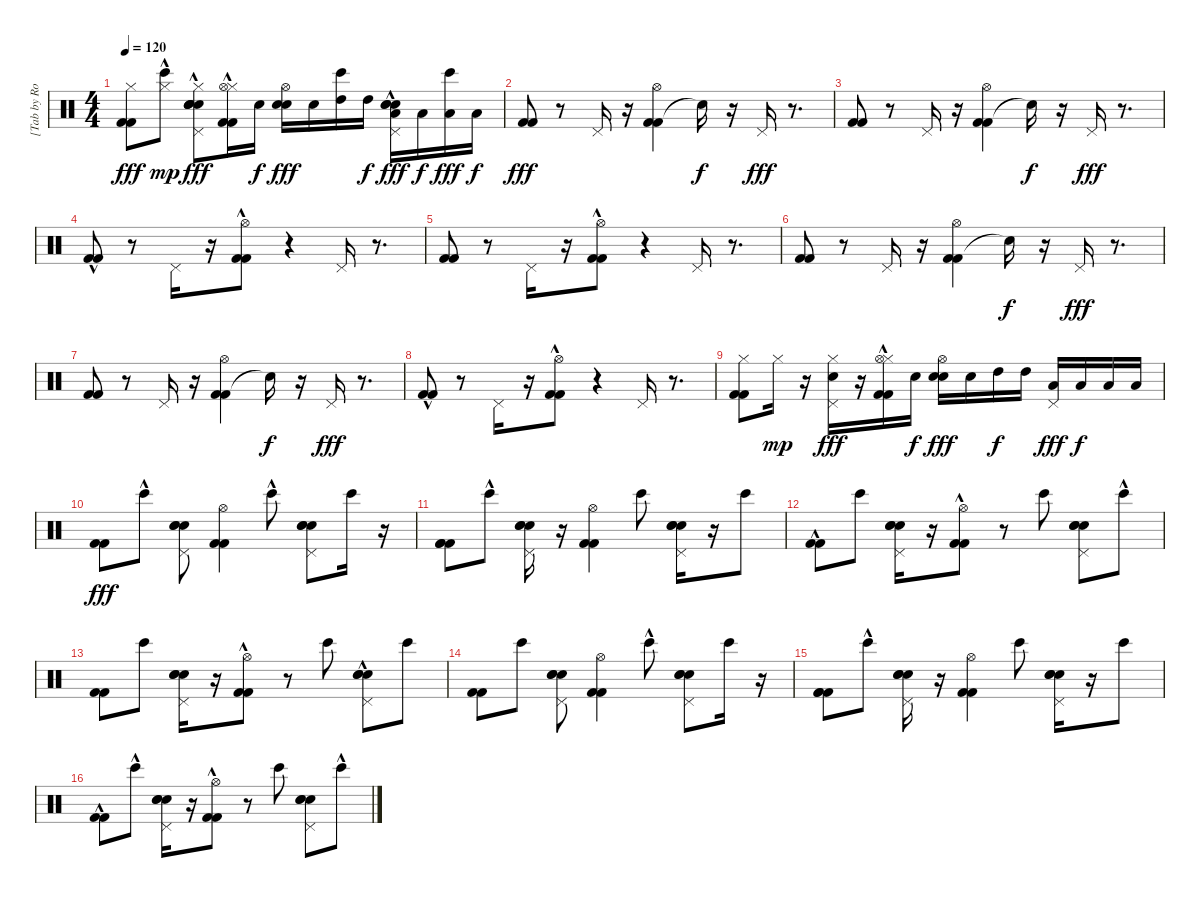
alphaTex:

\track ("[Tab by Rodrigo Takahashi]" "[Tab by Ro") {instrument percussion}
\staff {score}
\articulation defaults
\ts (4 4)
\tempo 120
\clef neutral
\ks c
("Hi-Hat (closed)" "Kick (hit) 2" "Kick (hit) 2").8{dy fff} ("Bongo High (hit)"{hac} "Hi-Hat (closed)").8{dy mp} ("Hi-Hat (closed)" "Snare (hit) 2" "Hand Clap (hit)" "Pedal Hi-Hat (hit)" "Electric Snare (hit)"{hac} "Snare (hit) 2").8{dy fff} ("Hi-Hat (closed)" "Kick (hit) 2"{hac} "Kick (hit) 2"{hac} "Hi-Hat (open)").16 "Snare (hit) 2".16{dy f} ("Snare (hit) 2" "Hi-Hat (open)" "Snare (hit) 2").16{dy fff} "Snare (hit) 2".16 ("High Tom (hit)" "Bongo High (hit)").16 "High Tom (hit)".16{dy f} ("Low Tom (hit)" "Hand Clap (hit)" "Snare (hit) 2" "Pedal Hi-Hat (hit)" "Electric Snare (hit)"{hac}).16{dy fff} "Low Tom (hit)".16{dy f} ("Low Floor Tom (hit)" "Bongo High (hit)").16{dy fff} "Low Floor Tom (hit)".16{dy f} |
("Kick (hit) 2" "Kick (hit) 2").8{dy fff} r.8 "Pedal Hi-Hat (hit)".16 r.16 ("Kick (hit) 2" "Kick (hit) 2" "Hi-Hat (open)").4 "Snare (hit)"{t}.16{dy f} r.16 "Pedal Hi-Hat (hit)".16{dy fff} r.8{d} |
("Kick (hit) 2" "Kick (hit) 2").8 r.8 "Pedal Hi-Hat (hit)".16 r.16 ("Kick (hit) 2" "Kick (hit) 2" "Hi-Hat (open)").4 "Snare (hit)"{t}.16{dy f} r.16 "Pedal Hi-Hat (hit)".16{dy fff} r.8{d} |
("Kick (hit) 2"{hac} "Kick (hit) 2"{hac}).8 r.8 "Pedal Hi-Hat (hit)".16 r.16 ("Kick (hit) 2"{hac} "Kick (hit) 2"{hac} "Hi-Hat (open)").8 r.4 "Pedal Hi-Hat (hit)".16 r.8{d} |
("Kick (hit) 2" "Kick (hit) 2").8 r.8 "Pedal Hi-Hat (hit)".16 r.16 ("Kick (hit) 2"{hac} "Kick (hit) 2"{hac} "Hi-Hat (open)").8 r.4 "Pedal Hi-Hat (hit)".16 r.8{d} |
("Kick (hit) 2" "Kick (hit) 2").8 r.8 "Pedal Hi-Hat (hit)".16 r.16 ("Kick (hit) 2" "Kick (hit) 2" "Hi-Hat (open)").4 "Snare (hit)"{t}.16{dy f} r.16 "Pedal Hi-Hat (hit)".16{dy fff} r.8{d} |
("Kick (hit) 2" "Kick (hit) 2").8 r.8 "Pedal Hi-Hat (hit)".16 r.16 ("Kick (hit) 2" "Kick (hit) 2" "Hi-Hat (open)").4 "Snare (hit)"{t}.16{dy f} r.16 "Pedal Hi-Hat (hit)".16{dy fff} r.8{d} |
("Kick (hit) 2"{hac} "Kick (hit) 2"{hac}).8 r.8 "Pedal Hi-Hat (hit)".16 r.16 ("Kick (hit) 2"{hac} "Kick (hit) 2"{hac} "Hi-Hat (open)").8 r.4 "Pedal Hi-Hat (hit)".16 r.8{d} |
("Hi-Hat (closed)" "Kick (hit) 2" "Kick (hit) 2").8 "Hi-Hat (closed)".16{dy mp} r.16 ("Hi-Hat (closed)" "Snare (hit) 2" "Pedal Hi-Hat (hit)").16{dy fff} r.16 ("Hi-Hat (closed)" "Kick (hit) 2"{hac} "Kick (hit) 2"{hac} "Hi-Hat (open)").16 "Snare (hit) 2".16{dy f} ("Snare (hit) 2" "Hi-Hat (open)" "Snare (hit) 2").16{dy fff} "Snare (hit) 2".16 "High Tom (hit)".16{dy f} "High Tom (hit)".16 ("Low Tom (hit)" "Pedal Hi-Hat (hit)").16{dy fff} "Low Tom (hit)".16{dy f} "Low Floor Tom (hit)".16 "Low Floor Tom (hit)".16 |
("Kick (hit) 2" "Kick (hit) 2").8{dy fff} "Bongo High (hit)"{hac}.8 ("Hand Clap (hit)" "Pedal Hi-Hat (hit)" "Electric Snare (hit)" "Snare (hit) 2").8 ("Kick (hit) 2" "Kick (hit) 2" "Hi-Hat (open)").4 "Bongo High (hit)"{hac}.8 ("Pedal Hi-Hat (hit)" "Electric Snare (hit)" "Snare (hit) 2" "Hand Clap (hit)").8 "Bongo High (hit)".16 r.16 |
("Kick (hit) 2" "Kick (hit) 2" "Kick (hit) 2").8 "Bongo High (hit)"{hac}.8 ("Pedal Hi-Hat (hit)" "Electric Snare (hit)" "Snare (hit) 2" "Hand Clap (hit)").16 r.16 ("Kick (hit) 2" "Kick (hit) 2" "Hi-Hat (open)").4 "Bongo High (hit)".8 ("Pedal Hi-Hat (hit)" "Electric Snare (hit)" "Snare (hit) 2" "Hand Clap (hit)").16 r.16 "Bongo High (hit)".8 |
("Kick (hit) 2"{hac} "Kick (hit) 2"{hac}).8 "Bongo High (hit)".8 ("Pedal Hi-Hat (hit)" "Electric Snare (hit)" "Snare (hit) 2" "Hand Clap (hit)").16 r.16 ("Kick (hit) 2"{hac} "Kick (hit) 2"{hac} "Hi-Hat (open)").8 r.8 "Bongo High (hit)".8 ("Snare (hit) 2" "Pedal Hi-Hat (hit)" "Electric Snare (hit)" "Hand Clap (hit)").8 "Bongo High (hit)"{hac}.8 |
("Kick (hit) 2" "Kick (hit) 2").8 "Bongo High (hit)".8 ("Pedal Hi-Hat (hit)" "Electric Snare (hit)" "Snare (hit) 2" "Hand Clap (hit)").16 r.16 ("Kick (hit) 2"{hac} "Kick (hit) 2"{hac} "Hi-Hat (open)").8 r.8 "Bongo High (hit)".8 ("Snare (hit) 2" "Pedal Hi-Hat (hit)" "Electric Snare (hit)"{hac} "Hand Clap (hit)").8 "Bongo High (hit)".8 |
("Kick (hit) 2" "Kick (hit) 2").8 "Bongo High (hit)".8 ("Hand Clap (hit)" "Pedal Hi-Hat (hit)" "Electric Snare (hit)" "Snare (hit) 2").8 ("Kick (hit) 2" "Kick (hit) 2" "Hi-Hat (open)").4 "Bongo High (hit)"{hac}.8 ("Pedal Hi-Hat (hit)" "Electric Snare (hit)" "Snare (hit) 2" "Hand Clap (hit)").8 "Bongo High (hit)".16 r.16 |
("Kick (hit) 2" "Kick (hit) 2" "Kick (hit) 2").8 "Bongo High (hit)"{hac}.8 ("Pedal Hi-Hat (hit)" "Electric Snare (hit)" "Snare (hit) 2" "Hand Clap (hit)").16 r.16 ("Kick (hit) 2" "Kick (hit) 2" "Hi-Hat (open)").4 "Bongo High (hit)".8 ("Pedal Hi-Hat (hit)" "Electric Snare (hit)" "Snare (hit) 2" "Hand Clap (hit)").16 r.16 "Bongo High (hit)".8 |
("Kick (hit) 2"{hac} "Kick (hit) 2"{hac}).8 "Bongo High (hit)"{hac}.8 ("Pedal Hi-Hat (hit)" "Electric Snare (hit)" "Snare (hit) 2" "Hand Clap (hit)").16 r.16 ("Kick (hit) 2"{hac} "Kick (hit) 2"{hac} "Hi-Hat (open)").8 r.8 "Bongo High (hit)".8 ("Snare (hit) 2" "Pedal Hi-Hat (hit)" "Electric Snare (hit)" "Hand Clap (hit)").8 "Bongo High (hit)"{hac}.8
